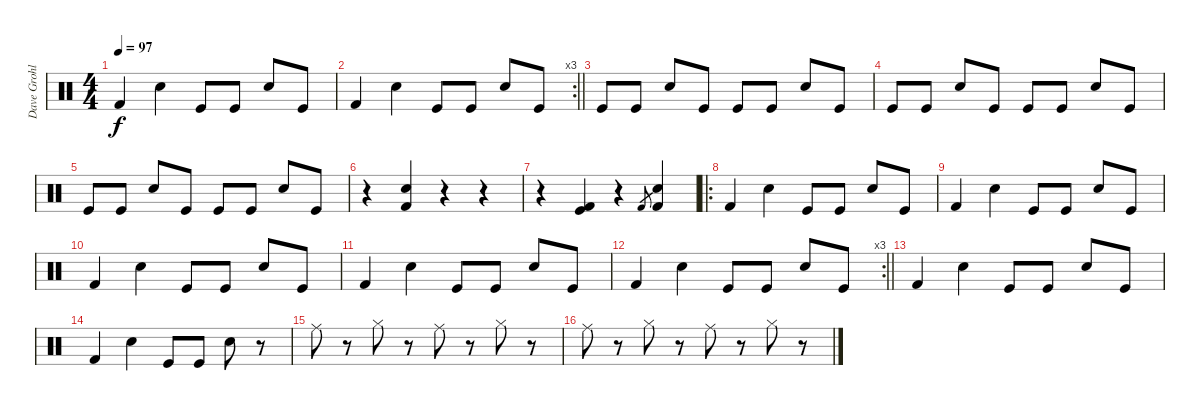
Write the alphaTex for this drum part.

\track ("Dave Grohl" "Dave Grohl") {instrument percussion}
\staff {score}
\articulation defaults
\ts (4 4)
\tempo 97
\clef neutral
\ks c "Kick (hit) 2".4{dy f} "Electric Snare (hit)".4 "Kick (hit)".8 "Kick (hit)".8 "Electric Snare (hit)".8 "Kick (hit)".8
|
\rc 3
\barLineRight lightlight "Kick (hit) 2".4 "Electric Snare (hit)".4 "Kick (hit)".8 "Kick (hit)".8 "Electric Snare (hit)".8 "Kick (hit)".8
|
"Kick (hit)".8 "Kick (hit)".8 "Electric Snare (hit)".8 "Kick (hit)".8 "Kick (hit)".8 "Kick (hit)".8 "Electric Snare (hit)".8 "Kick (hit)".8 |
"Kick (hit)".8 "Kick (hit)".8 "Electric Snare (hit)".8 "Kick (hit)".8 "Kick (hit)".8 "Kick (hit)".8 "Electric Snare (hit)".8 "Kick (hit)".8 |
"Kick (hit)".8 "Kick (hit)".8 "Electric Snare (hit)".8 "Kick (hit)".8 "Kick (hit)".8 "Kick (hit)".8 "Electric Snare (hit)".8 "Kick (hit)".8 |
r.4 ("Electric Snare (hit)" "Kick (hit) 2").4 r.4 r.4 |
r.4 ("Kick (hit) 2" "Kick (hit)").4 r.4 "Kick (hit) 2".8{gr} ("Electric Snare (hit)" "Kick (hit) 2").4 |
\ro "Kick (hit) 2".4 "Electric Snare (hit)".4 "Kick (hit)".8 "Kick (hit)".8 "Electric Snare (hit)".8 "Kick (hit)".8
|
"Kick (hit) 2".4 "Electric Snare (hit)".4 "Kick (hit)".8 "Kick (hit)".8 "Electric Snare (hit)".8 "Kick (hit)".8 |
"Kick (hit) 2".4 "Electric Snare (hit)".4 "Kick (hit)".8 "Kick (hit)".8 "Electric Snare (hit)".8 "Kick (hit)".8 |
"Kick (hit) 2".4 "Electric Snare (hit)".4 "Kick (hit)".8 "Kick (hit)".8 "Electric Snare (hit)".8 "Kick (hit)".8 |
\rc 3
\barLineRight lightlight "Kick (hit) 2".4 "Electric Snare (hit)".4 "Kick (hit)".8 "Kick (hit)".8 "Electric Snare (hit)".8 "Kick (hit)".8
|
"Kick (hit) 2".4 "Electric Snare (hit)".4 "Kick (hit)".8 "Kick (hit)".8 "Electric Snare (hit)".8 "Kick (hit)".8 |
"Kick (hit) 2".4 "Electric Snare (hit)".4 "Kick (hit)".8 "Kick (hit)".8 "Electric Snare (hit)".8 r.8 |
"Ride (middle)".8 r.8 "Hi-Hat (closed)".8 r.8 "Ride (middle)".8 r.8 "Hi-Hat (closed)".8 r.8 |
"Ride (middle)".8 r.8 "Hi-Hat (closed)".8 r.8 "Ride (middle)".8 r.8 "Hi-Hat (closed)".8 r.8
